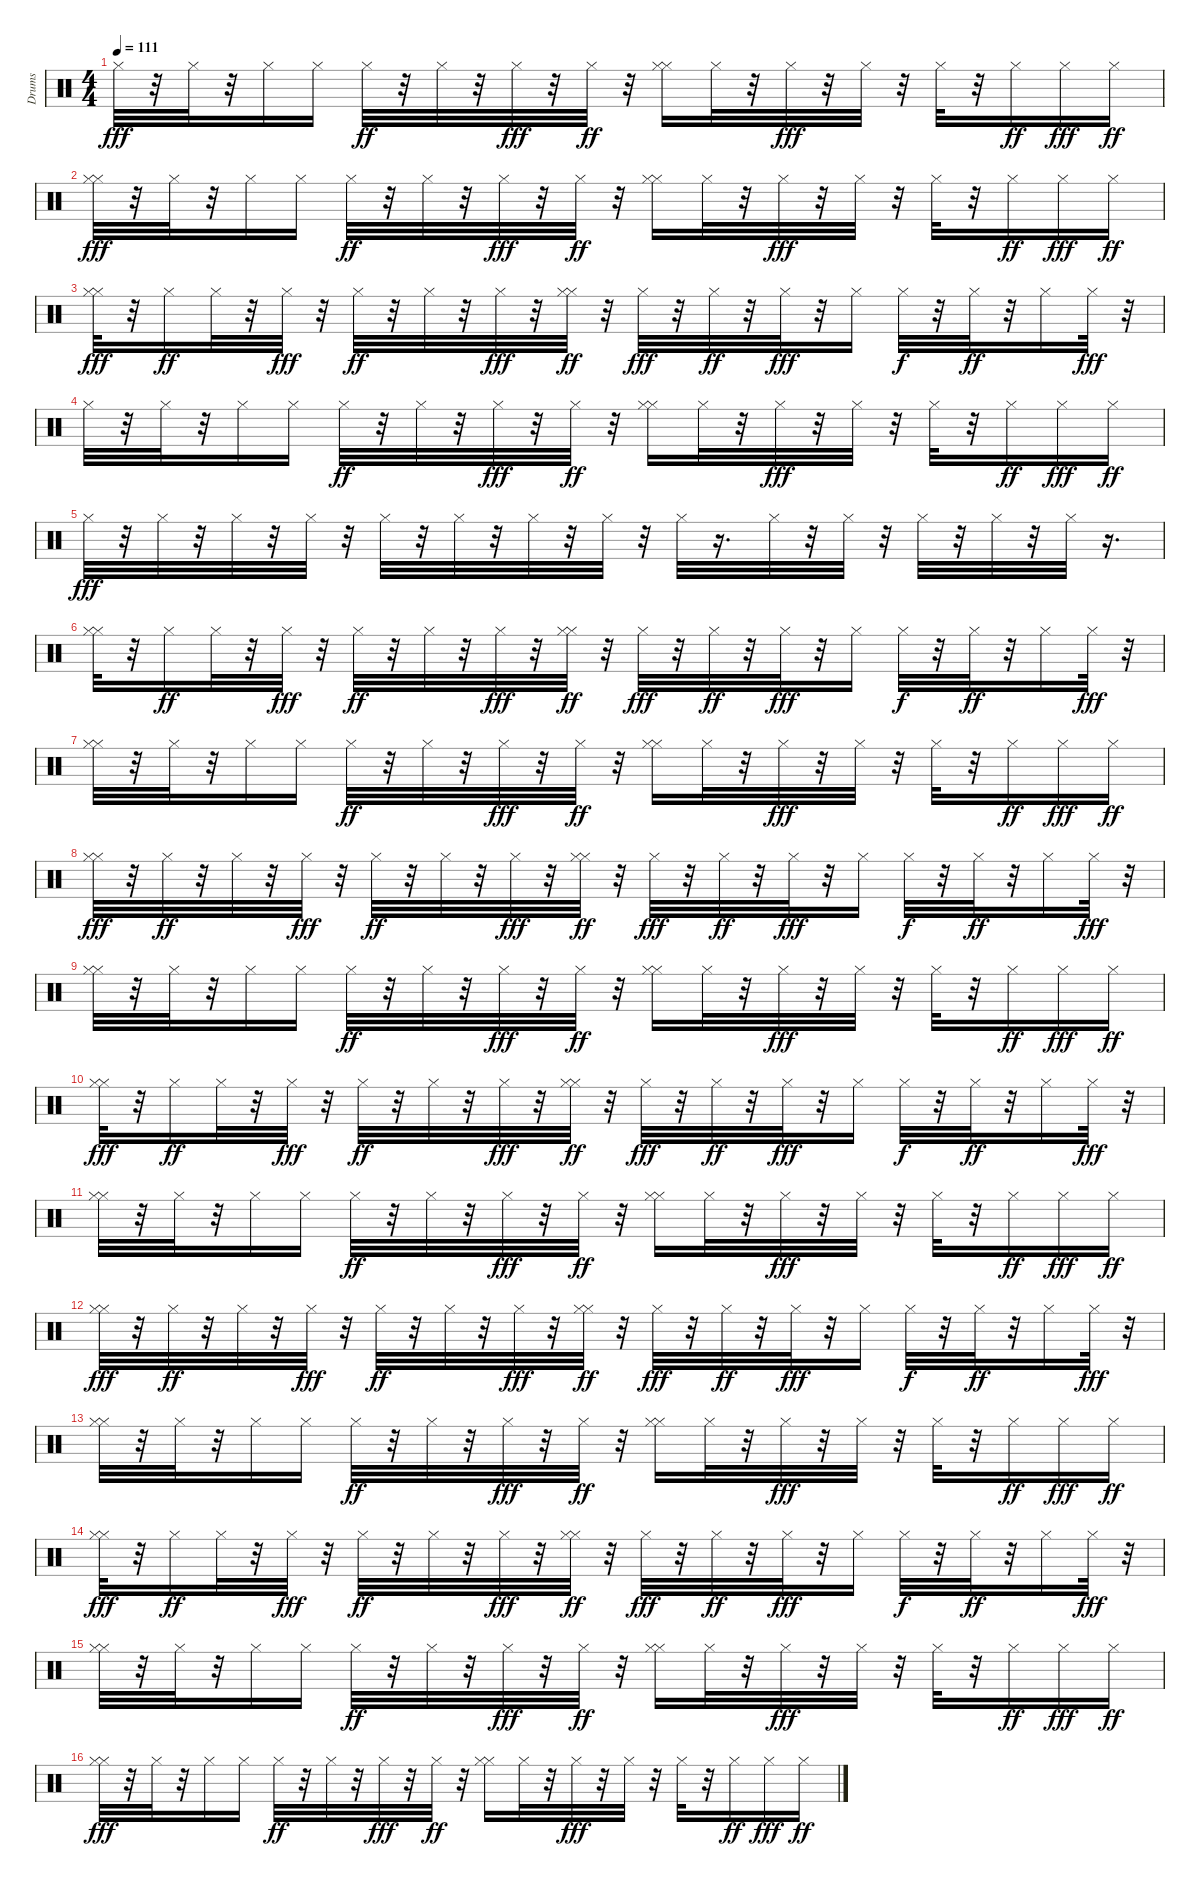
\track ("Drums" "Drums") {instrument percussion}
\staff {score}
\articulation defaults
\ts (4 4)
\tempo 111
\clef neutral
\ks c "Hi-Hat (closed)".32{dy fff}
r.32 "Hi-Hat (closed)".32 r.32 "Hi-Hat (closed)".16 "Hi-Hat (closed)".16 "Hi-Hat (closed)".32{dy ff} r.32 "Hi-Hat (closed)".32 r.32 "Hi-Hat (closed)".32{dy fff} r.32 "Hi-Hat (closed)".32{dy ff} r.32 ("Hi-Hat (closed)" "Hi-Hat (closed)").16 "Hi-Hat (closed)".32 r.32 "Hi-Hat (closed)".32{dy fff} r.32 "Hi-Hat (closed)".32 r.32 "Hi-Hat (closed)".32 r.32 "Hi-Hat (closed)".16{dy ff} "Hi-Hat (closed)".16{dy fff} "Hi-Hat (closed)".16{dy ff} |
("Hi-Hat (closed)" "Hi-Hat (closed)").32{dy fff} r.32 "Hi-Hat (closed)".32 r.32 "Hi-Hat (closed)".16 "Hi-Hat (closed)".16 "Hi-Hat (closed)".32{dy ff} r.32 "Hi-Hat (closed)".32 r.32 "Hi-Hat (closed)".32{dy fff} r.32 "Hi-Hat (closed)".32{dy ff} r.32 ("Hi-Hat (closed)" "Hi-Hat (closed)").16 "Hi-Hat (closed)".32 r.32 "Hi-Hat (closed)".32{dy fff} r.32 "Hi-Hat (closed)".32 r.32 "Hi-Hat (closed)".32 r.32 "Hi-Hat (closed)".16{dy ff} "Hi-Hat (closed)".16{dy fff} "Hi-Hat (closed)".16{dy ff} |
("Hi-Hat (closed)" "Hi-Hat (closed)").32{dy fff} r.32 "Hi-Hat (closed)".16{dy ff} "Hi-Hat (closed)".32 r.32 "Hi-Hat (closed)".32{dy fff} r.32 "Hi-Hat (closed)".32{dy ff} r.32 "Hi-Hat (closed)".32 r.32 "Hi-Hat (closed)".32{dy fff} r.32 ("Hi-Hat (closed)" "Hi-Hat (closed)").32{dy ff} r.32 "Hi-Hat (closed)".32{dy fff} r.32 "Hi-Hat (closed)".32{dy ff} r.32 "Hi-Hat (closed)".32{dy fff} r.32 "Hi-Hat (closed)".16 "Hi-Hat (closed)".32{dy f} r.32 "Hi-Hat (closed)".32{dy ff} r.32 "Hi-Hat (closed)".16 "Hi-Hat (closed)".32{dy fff} r.32 |
"Hi-Hat (closed)".32 r.32 "Hi-Hat (closed)".32 r.32 "Hi-Hat (closed)".16 "Hi-Hat (closed)".16 "Hi-Hat (closed)".32{dy ff} r.32 "Hi-Hat (closed)".32 r.32 "Hi-Hat (closed)".32{dy fff} r.32 "Hi-Hat (closed)".32{dy ff} r.32 ("Hi-Hat (closed)" "Hi-Hat (closed)").16 "Hi-Hat (closed)".32 r.32 "Hi-Hat (closed)".32{dy fff} r.32 "Hi-Hat (closed)".32 r.32 "Hi-Hat (closed)".32 r.32 "Hi-Hat (closed)".16{dy ff} "Hi-Hat (closed)".16{dy fff} "Hi-Hat (closed)".16{dy ff} |
"Hi-Hat (closed)".32{dy fff} r.32 "Hi-Hat (closed)".32 r.32 "Hi-Hat (closed)".32 r.32 "Hi-Hat (closed)".32 r.32 "Hi-Hat (closed)".32 r.32 "Hi-Hat (closed)".32 r.32 "Hi-Hat (closed)".32 r.32 "Hi-Hat (closed)".32 r.32 "Hi-Hat (closed)".32 r.16{d} "Hi-Hat (closed)".32 r.32 "Hi-Hat (closed)".32 r.32 "Hi-Hat (closed)".32 r.32 "Hi-Hat (closed)".32 r.32 "Hi-Hat (closed)".32 r.16{d} |
("Hi-Hat (closed)" "Hi-Hat (closed)").32 r.32 "Hi-Hat (closed)".16{dy ff} "Hi-Hat (closed)".32 r.32 "Hi-Hat (closed)".32{dy fff} r.32 "Hi-Hat (closed)".32{dy ff} r.32 "Hi-Hat (closed)".32 r.32 "Hi-Hat (closed)".32{dy fff} r.32 ("Hi-Hat (closed)" "Hi-Hat (closed)").32{dy ff} r.32 "Hi-Hat (closed)".32{dy fff} r.32 "Hi-Hat (closed)".32{dy ff} r.32 "Hi-Hat (closed)".32{dy fff} r.32 "Hi-Hat (closed)".16 "Hi-Hat (closed)".32{dy f} r.32 "Hi-Hat (closed)".32{dy ff} r.32 "Hi-Hat (closed)".16 "Hi-Hat (closed)".32{dy fff} r.32 |
("Hi-Hat (closed)" "Hi-Hat (closed)").32 r.32 "Hi-Hat (closed)".32 r.32 "Hi-Hat (closed)".16 "Hi-Hat (closed)".16 "Hi-Hat (closed)".32{dy ff} r.32 "Hi-Hat (closed)".32 r.32 "Hi-Hat (closed)".32{dy fff} r.32 "Hi-Hat (closed)".32{dy ff} r.32 ("Hi-Hat (closed)" "Hi-Hat (closed)").16 "Hi-Hat (closed)".32 r.32 "Hi-Hat (closed)".32{dy fff} r.32 "Hi-Hat (closed)".32 r.32 "Hi-Hat (closed)".32 r.32 "Hi-Hat (closed)".16{dy ff} "Hi-Hat (closed)".16{dy fff} "Hi-Hat (closed)".16{dy ff} |
("Hi-Hat (closed)" "Hi-Hat (closed)").32{dy fff} r.32 "Hi-Hat (closed)".32{dy ff} r.32 "Hi-Hat (closed)".32 r.32 "Hi-Hat (closed)".32{dy fff} r.32 "Hi-Hat (closed)".32{dy ff} r.32 "Hi-Hat (closed)".32 r.32 "Hi-Hat (closed)".32{dy fff} r.32 ("Hi-Hat (closed)" "Hi-Hat (closed)").32{dy ff} r.32 "Hi-Hat (closed)".32{dy fff} r.32 "Hi-Hat (closed)".32{dy ff} r.32 "Hi-Hat (closed)".32{dy fff} r.32 "Hi-Hat (closed)".16 "Hi-Hat (closed)".32{dy f} r.32 "Hi-Hat (closed)".32{dy ff} r.32 "Hi-Hat (closed)".16 "Hi-Hat (closed)".32{dy fff} r.32 |
("Hi-Hat (closed)" "Hi-Hat (closed)").32 r.32 "Hi-Hat (closed)".32 r.32 "Hi-Hat (closed)".16 "Hi-Hat (closed)".16 "Hi-Hat (closed)".32{dy ff} r.32 "Hi-Hat (closed)".32 r.32 "Hi-Hat (closed)".32{dy fff} r.32 "Hi-Hat (closed)".32{dy ff} r.32 ("Hi-Hat (closed)" "Hi-Hat (closed)").16 "Hi-Hat (closed)".32 r.32 "Hi-Hat (closed)".32{dy fff} r.32 "Hi-Hat (closed)".32 r.32 "Hi-Hat (closed)".32 r.32 "Hi-Hat (closed)".16{dy ff} "Hi-Hat (closed)".16{dy fff} "Hi-Hat (closed)".16{dy ff} |
("Hi-Hat (closed)" "Hi-Hat (closed)").32{dy fff} r.32 "Hi-Hat (closed)".16{dy ff} "Hi-Hat (closed)".32 r.32 "Hi-Hat (closed)".32{dy fff} r.32 "Hi-Hat (closed)".32{dy ff} r.32 "Hi-Hat (closed)".32 r.32 "Hi-Hat (closed)".32{dy fff} r.32 ("Hi-Hat (closed)" "Hi-Hat (closed)").32{dy ff} r.32 "Hi-Hat (closed)".32{dy fff} r.32 "Hi-Hat (closed)".32{dy ff} r.32 "Hi-Hat (closed)".32{dy fff} r.32 "Hi-Hat (closed)".16 "Hi-Hat (closed)".32{dy f} r.32 "Hi-Hat (closed)".32{dy ff} r.32 "Hi-Hat (closed)".16 "Hi-Hat (closed)".32{dy fff} r.32 |
("Hi-Hat (closed)" "Hi-Hat (closed)").32 r.32 "Hi-Hat (closed)".32 r.32 "Hi-Hat (closed)".16 "Hi-Hat (closed)".16 "Hi-Hat (closed)".32{dy ff} r.32 "Hi-Hat (closed)".32 r.32 "Hi-Hat (closed)".32{dy fff} r.32 "Hi-Hat (closed)".32{dy ff} r.32 ("Hi-Hat (closed)" "Hi-Hat (closed)").16 "Hi-Hat (closed)".32 r.32 "Hi-Hat (closed)".32{dy fff} r.32 "Hi-Hat (closed)".32 r.32 "Hi-Hat (closed)".32 r.32 "Hi-Hat (closed)".16{dy ff} "Hi-Hat (closed)".16{dy fff} "Hi-Hat (closed)".16{dy ff} |
("Hi-Hat (closed)" "Hi-Hat (closed)").32{dy fff} r.32 "Hi-Hat (closed)".32{dy ff} r.32 "Hi-Hat (closed)".32 r.32 "Hi-Hat (closed)".32{dy fff} r.32 "Hi-Hat (closed)".32{dy ff} r.32 "Hi-Hat (closed)".32 r.32 "Hi-Hat (closed)".32{dy fff} r.32 ("Hi-Hat (closed)" "Hi-Hat (closed)").32{dy ff} r.32 "Hi-Hat (closed)".32{dy fff} r.32 "Hi-Hat (closed)".32{dy ff} r.32 "Hi-Hat (closed)".32{dy fff} r.32 "Hi-Hat (closed)".16 "Hi-Hat (closed)".32{dy f} r.32 "Hi-Hat (closed)".32{dy ff} r.32 "Hi-Hat (closed)".16 "Hi-Hat (closed)".32{dy fff} r.32 |
("Hi-Hat (closed)" "Hi-Hat (closed)").32 r.32 "Hi-Hat (closed)".32 r.32 "Hi-Hat (closed)".16 "Hi-Hat (closed)".16 "Hi-Hat (closed)".32{dy ff} r.32 "Hi-Hat (closed)".32 r.32 "Hi-Hat (closed)".32{dy fff} r.32 "Hi-Hat (closed)".32{dy ff} r.32 ("Hi-Hat (closed)" "Hi-Hat (closed)").16 "Hi-Hat (closed)".32 r.32 "Hi-Hat (closed)".32{dy fff} r.32 "Hi-Hat (closed)".32 r.32 "Hi-Hat (closed)".32 r.32 "Hi-Hat (closed)".16{dy ff} "Hi-Hat (closed)".16{dy fff} "Hi-Hat (closed)".16{dy ff} |
("Hi-Hat (closed)" "Hi-Hat (closed)").32{dy fff} r.32 "Hi-Hat (closed)".16{dy ff} "Hi-Hat (closed)".32 r.32 "Hi-Hat (closed)".32{dy fff} r.32 "Hi-Hat (closed)".32{dy ff} r.32 "Hi-Hat (closed)".32 r.32 "Hi-Hat (closed)".32{dy fff} r.32 ("Hi-Hat (closed)" "Hi-Hat (closed)").32{dy ff} r.32 "Hi-Hat (closed)".32{dy fff} r.32 "Hi-Hat (closed)".32{dy ff} r.32 "Hi-Hat (closed)".32{dy fff} r.32 "Hi-Hat (closed)".16 "Hi-Hat (closed)".32{dy f} r.32 "Hi-Hat (closed)".32{dy ff} r.32 "Hi-Hat (closed)".16 "Hi-Hat (closed)".32{dy fff} r.32 |
("Hi-Hat (closed)" "Hi-Hat (closed)").32 r.32 "Hi-Hat (closed)".32 r.32 "Hi-Hat (closed)".16 "Hi-Hat (closed)".16 "Hi-Hat (closed)".32{dy ff} r.32 "Hi-Hat (closed)".32 r.32 "Hi-Hat (closed)".32{dy fff} r.32 "Hi-Hat (closed)".32{dy ff} r.32 ("Hi-Hat (closed)" "Hi-Hat (closed)").16 "Hi-Hat (closed)".32 r.32 "Hi-Hat (closed)".32{dy fff} r.32 "Hi-Hat (closed)".32 r.32 "Hi-Hat (closed)".32 r.32 "Hi-Hat (closed)".16{dy ff} "Hi-Hat (closed)".16{dy fff} "Hi-Hat (closed)".16{dy ff} |
("Hi-Hat (closed)" "Hi-Hat (closed)").32{dy fff} r.32 "Hi-Hat (closed)".32 r.32 "Hi-Hat (closed)".16 "Hi-Hat (closed)".16 "Hi-Hat (closed)".32{dy ff} r.32 "Hi-Hat (closed)".32 r.32 "Hi-Hat (closed)".32{dy fff} r.32 "Hi-Hat (closed)".32{dy ff} r.32 ("Hi-Hat (closed)" "Hi-Hat (closed)").16 "Hi-Hat (closed)".32 r.32 "Hi-Hat (closed)".32{dy fff} r.32 "Hi-Hat (closed)".32 r.32 "Hi-Hat (closed)".32 r.32 "Hi-Hat (closed)".16{dy ff} "Hi-Hat (closed)".16{dy fff} "Hi-Hat (closed)".16{dy ff}
